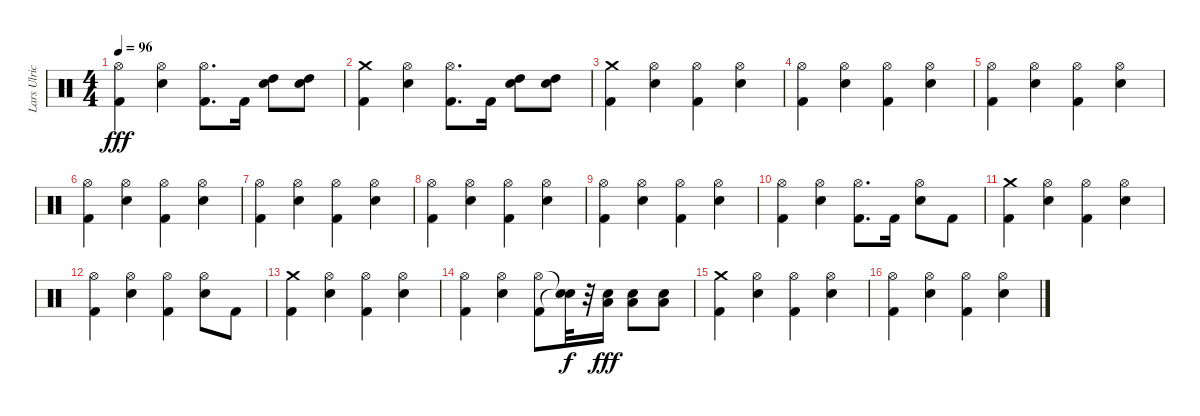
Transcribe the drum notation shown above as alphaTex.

\track ("Lars Ulrich" "Lars Ulric") {instrument percussion}
\staff {score}
\articulation defaults
\ts (4 4)
\tempo 96
\clef neutral
\ks c
("Hi-Hat (open)" "Kick (hit) 2").4{dy fff} ("Hi-Hat (open)" "Snare (hit) 2").4 ("Hi-Hat (open)" "Kick (hit) 2").8{d} "Kick (hit) 2".16 ("Snare (hit) 2" "High Tom (hit)").8 ("Snare (hit) 2" "High Tom (hit)").8 |
("Kick (hit) 2" "Crash medium (hit)").4 ("Hi-Hat (open)" "Snare (hit) 2").4 ("Hi-Hat (open)" "Kick (hit) 2").8{d} "Kick (hit) 2".16 ("Snare (hit) 2" "High Tom (hit)").8 ("Snare (hit) 2" "High Tom (hit)").8 |
("Kick (hit) 2" "Crash medium (hit)").4 ("Hi-Hat (open)" "Snare (hit) 2").4 ("Hi-Hat (open)" "Kick (hit) 2").4 ("Hi-Hat (open)" "Snare (hit) 2").4 |
("Hi-Hat (open)" "Kick (hit) 2").4 ("Hi-Hat (open)" "Snare (hit) 2").4 ("Hi-Hat (open)" "Kick (hit) 2").4 ("Hi-Hat (open)" "Snare (hit) 2").4 |
("Hi-Hat (open)" "Kick (hit) 2").4 ("Hi-Hat (open)" "Snare (hit) 2").4 ("Hi-Hat (open)" "Kick (hit) 2").4 ("Hi-Hat (open)" "Snare (hit) 2").4 |
("Hi-Hat (open)" "Kick (hit) 2").4 ("Hi-Hat (open)" "Snare (hit) 2").4 ("Hi-Hat (open)" "Kick (hit) 2").4 ("Hi-Hat (open)" "Snare (hit) 2").4 |
("Hi-Hat (open)" "Kick (hit) 2").4 ("Hi-Hat (open)" "Snare (hit) 2").4 ("Hi-Hat (open)" "Kick (hit) 2").4 ("Hi-Hat (open)" "Snare (hit) 2").4 |
("Hi-Hat (open)" "Kick (hit) 2").4 ("Hi-Hat (open)" "Snare (hit) 2").4 ("Hi-Hat (open)" "Kick (hit) 2").4 ("Hi-Hat (open)" "Snare (hit) 2").4 |
("Hi-Hat (open)" "Kick (hit) 2").4 ("Hi-Hat (open)" "Snare (hit) 2").4 ("Hi-Hat (open)" "Kick (hit) 2").4 ("Hi-Hat (open)" "Snare (hit) 2").4 |
("Hi-Hat (open)" "Kick (hit) 2").4 ("Hi-Hat (open)" "Snare (hit) 2").4 ("Hi-Hat (open)" "Kick (hit) 2").8{d} "Kick (hit) 2".16 ("Hi-Hat (open)" "Snare (hit) 2").8 "Kick (hit) 2".8 |
("Kick (hit) 2" "Crash medium (hit)").4 ("Hi-Hat (open)" "Snare (hit) 2").4 ("Hi-Hat (open)" "Kick (hit) 2").4 ("Hi-Hat (open)" "Snare (hit) 2").4 |
("Hi-Hat (open)" "Kick (hit) 2").4 ("Hi-Hat (open)" "Snare (hit) 2").4 ("Hi-Hat (open)" "Kick (hit) 2").4 ("Hi-Hat (open)" "Snare (hit) 2").8 "Kick (hit) 2".8 |
("Kick (hit) 2" "Crash medium (hit)").4 ("Hi-Hat (open)" "Snare (hit) 2").4 ("Hi-Hat (open)" "Kick (hit) 2").4 ("Hi-Hat (open)" "Snare (hit) 2").4 |
("Hi-Hat (open)" "Kick (hit) 2").4 ("Hi-Hat (open)" "Snare (hit) 2").4 ("Kick (hit) 2" "Hi-Hat (open)").8 ("Snare (hit)"{t} "Snare (hit)"{t}).32{dy f} r.32 ("Snare (hit) 2" "Low Floor Tom (hit)").16{dy fff} ("Snare (hit) 2" "Low Floor Tom (hit)").8 ("Snare (hit) 2" "Low Floor Tom (hit)").8 |
("Kick (hit) 2" "Crash medium (hit)").4 ("Hi-Hat (open)" "Snare (hit) 2").4 ("Hi-Hat (open)" "Kick (hit) 2").4 ("Hi-Hat (open)" "Snare (hit) 2").4 |
("Hi-Hat (open)" "Kick (hit) 2").4 ("Hi-Hat (open)" "Snare (hit) 2").4 ("Hi-Hat (open)" "Kick (hit) 2").4 ("Hi-Hat (open)" "Snare (hit) 2").4
